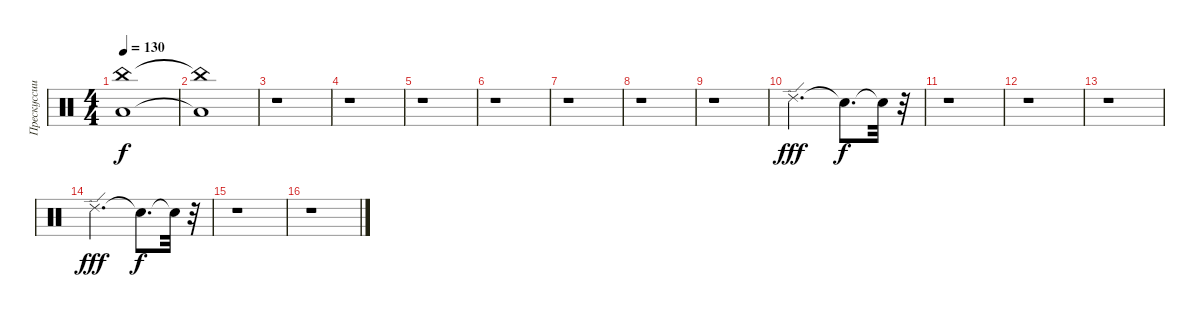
\track ("Прескуссии 2" "Прескуссии") {instrument percussion}
\staff {score}
\articulation defaults
\ts (4 4)
\tempo 130
\clef neutral
\ks c
("Low Floor Tom (hit)" "China (hit)").1{dy f} |
("Low Floor Tom (hit)"{t} "China (hit)"{t}).1 |
r.1 |
r.1 |
r.1 |
r.1 |
r.1 |
r.1 |
r.1 |
"Ride (edge) 2".2{d dy fff} "Snare (hit)"{t}.8{d dy f} "Snare (hit)"{t}.32 r.32 |
r.1 |
r.1 |
r.1 |
"Ride (edge) 2".2{d dy fff} "Snare (hit)"{t}.8{d dy f} "Snare (hit)"{t}.32 r.32 |
r.1 |
r.1
